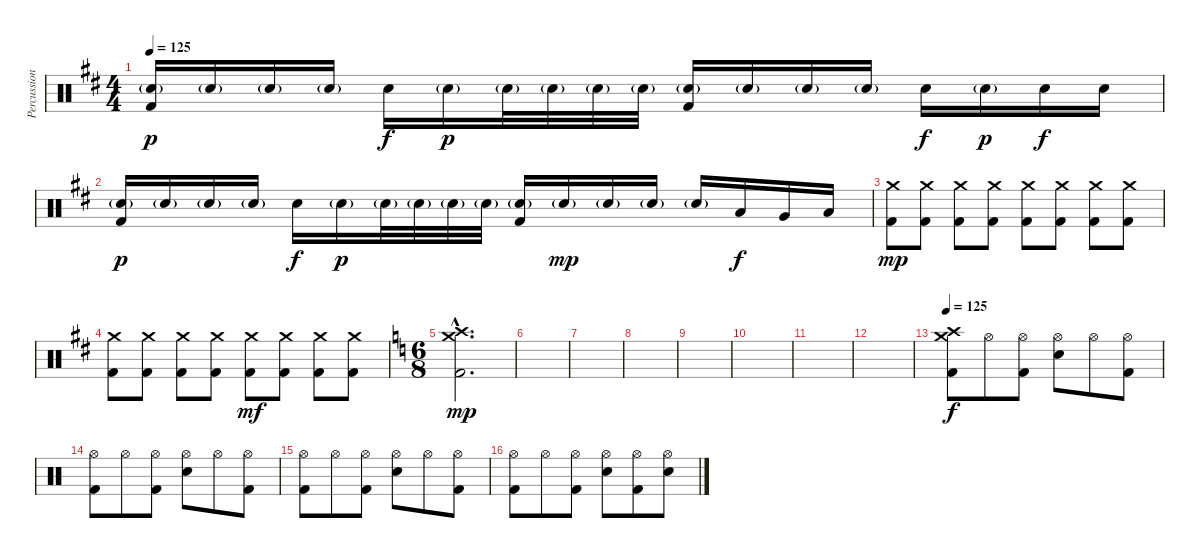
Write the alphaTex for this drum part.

\track ("Percussion" "Percussion") {instrument percussion}
\staff {score}
\articulation defaults
\ts (4 4)
\tempo 125
\clef neutral
\ks d
("Kick (hit) 2" "Electric Snare (hit)"{g}).16{dy p} "Electric Snare (hit)"{g}.16 "Electric Snare (hit)"{g}.16 "Electric Snare (hit)"{g}.16 "Electric Snare (hit)".16{dy f} "Electric Snare (hit)"{g}.16{dy p} "Electric Snare (hit)"{g}.32 "Electric Snare (hit)"{g}.32 "Electric Snare (hit)"{g}.32 "Electric Snare (hit)"{g}.32 ("Kick (hit) 2" "Electric Snare (hit)"{g}).16 "Electric Snare (hit)"{g}.16 "Electric Snare (hit)"{g}.16 "Electric Snare (hit)"{g}.16 "Electric Snare (hit)".16{dy f} "Electric Snare (hit)"{g}.16{dy p} "Electric Snare (hit)".16{dy f} "Electric Snare (hit)".16 |
("Kick (hit) 2" "Electric Snare (hit)"{g}).16{dy p} "Electric Snare (hit)"{g}.16 "Electric Snare (hit)"{g}.16 "Electric Snare (hit)"{g}.16 "Electric Snare (hit)".16{dy f} "Electric Snare (hit)"{g}.16{dy p} "Electric Snare (hit)"{g}.32 "Electric Snare (hit)"{g}.32 "Electric Snare (hit)"{g}.32 "Electric Snare (hit)"{g}.32 ("Kick (hit) 2" "Electric Snare (hit)"{g}).16 "Electric Snare (hit)"{g}.16{dy mp} "Electric Snare (hit)"{g}.16 "Electric Snare (hit)"{g}.16 "Electric Snare (hit)"{g}.16 "Low Tom (hit)".16{dy f} "Very Low Tom (hit)".16 "Low Floor Tom (hit)".16 |
("Crash medium (hit)" "Kick (hit) 2").8{dy mp} ("Crash medium (hit)" "Kick (hit) 2").8 ("Crash medium (hit)" "Kick (hit) 2").8 ("Crash medium (hit)" "Kick (hit) 2").8 ("Crash medium (hit)" "Kick (hit) 2").8 ("Crash medium (hit)" "Kick (hit) 2").8 ("Crash medium (hit)" "Kick (hit) 2").8 ("Crash medium (hit)" "Kick (hit) 2").8 |
("Crash medium (hit)" "Kick (hit) 2").8 ("Crash medium (hit)" "Kick (hit) 2").8 ("Crash medium (hit)" "Kick (hit) 2").8 ("Crash medium (hit)" "Kick (hit) 2").8 ("Crash medium (hit)" "Kick (hit) 2").8{dy mf} ("Crash medium (hit)" "Kick (hit) 2").8 ("Crash medium (hit)" "Kick (hit) 2").8 ("Crash medium (hit)" "Kick (hit) 2").8 |
\ts (6 8)
\ks c
("Crash high (hit)"{hac} "Crash medium (hit)"{hac} "Kick (hit) 2"{hac}).2{d dy mp} |
|
|
|
|
|
|
|
\tempo 125
("Crash medium (hit)" "Crash high (hit)" "Kick (hit) 2").8{dy f} "Hi-Hat (open)".8 ("Hi-Hat (open)" "Kick (hit) 2").8 ("Hi-Hat (open)" "Electric Snare (hit)").8 "Hi-Hat (open)".8 ("Hi-Hat (open)" "Kick (hit) 2").8 |
("Hi-Hat (open)" "Kick (hit) 2").8 "Hi-Hat (open)".8 ("Hi-Hat (open)" "Kick (hit) 2").8 ("Hi-Hat (open)" "Electric Snare (hit)").8 "Hi-Hat (open)".8 ("Hi-Hat (open)" "Kick (hit) 2").8 |
("Hi-Hat (open)" "Kick (hit) 2").8 "Hi-Hat (open)".8 ("Hi-Hat (open)" "Kick (hit) 2").8 ("Hi-Hat (open)" "Electric Snare (hit)").8 "Hi-Hat (open)".8 ("Hi-Hat (open)" "Kick (hit) 2").8 |
("Hi-Hat (open)" "Kick (hit) 2").8 "Hi-Hat (open)".8 ("Hi-Hat (open)" "Kick (hit) 2").8 ("Hi-Hat (open)" "Electric Snare (hit)").8 ("Hi-Hat (open)" "Kick (hit) 2").8 ("Hi-Hat (open)" "Electric Snare (hit)").8
